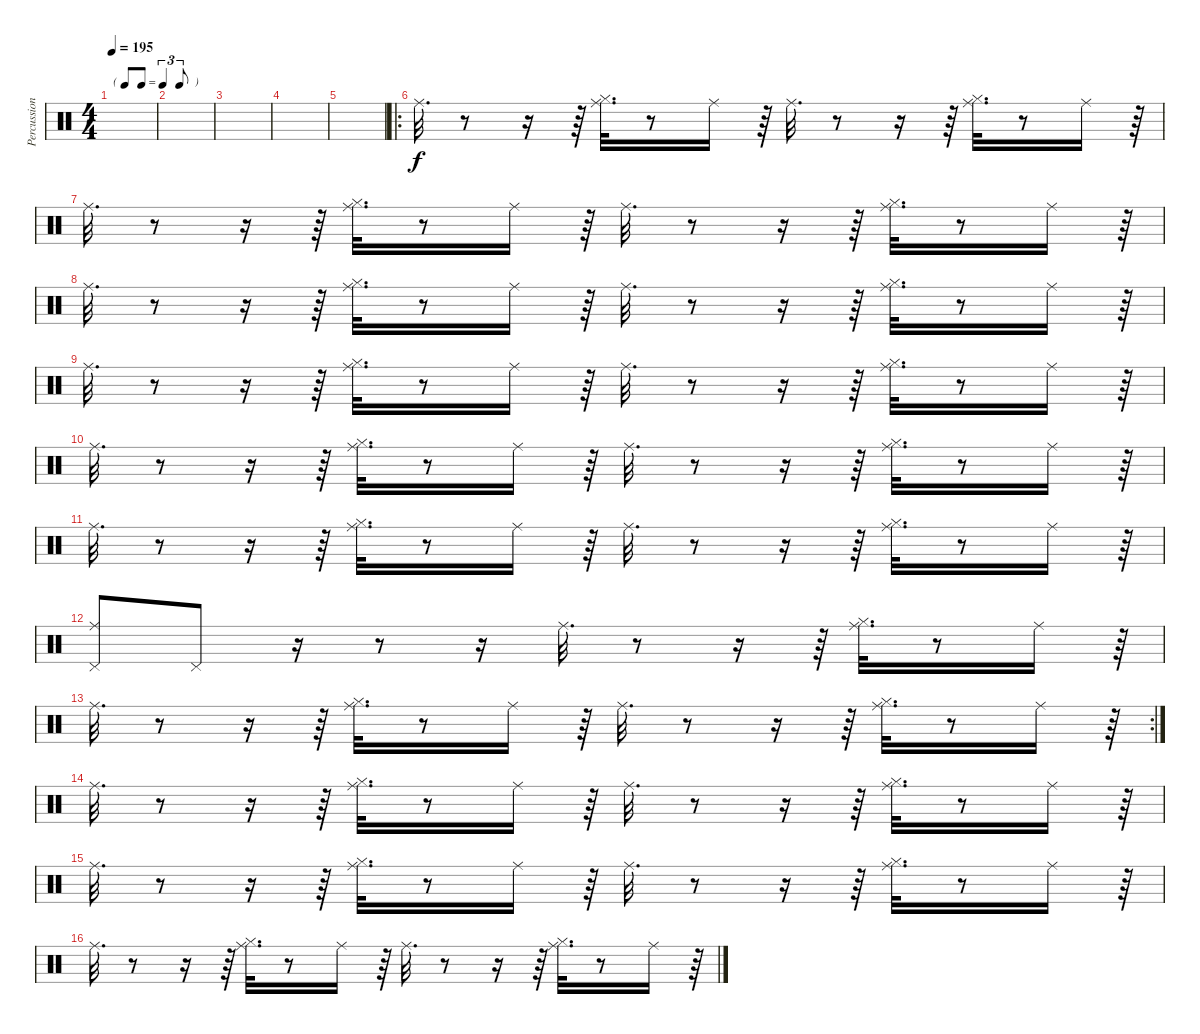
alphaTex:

\track ("Percussion" "Percussion") {instrument percussion}
\staff {score}
\articulation defaults
\ts (4 4)
\tf triplet8th
\tempo 195
\clef neutral
\ks c
|
|
|
|
|
\ro "Ride (middle)".32{d}
r.8 r.16 r.64 ("Hi-Hat (closed)" "Ride (middle)").32{d} r.8 "Ride (middle)".16 r.64 "Ride (middle)".32{d} r.8 r.16 r.64 ("Hi-Hat (closed)" "Ride (middle)").32{d} r.8 "Ride (middle)".16 r.64 |
"Ride (middle)".32{d} r.8 r.16 r.64 ("Hi-Hat (closed)" "Ride (middle)").32{d} r.8 "Ride (middle)".16 r.64 "Ride (middle)".32{d} r.8 r.16 r.64 ("Hi-Hat (closed)" "Ride (middle)").32{d} r.8 "Ride (middle)".16 r.64 |
"Ride (middle)".32{d} r.8 r.16 r.64 ("Hi-Hat (closed)" "Ride (middle)").32{d} r.8 "Ride (middle)".16 r.64 "Ride (middle)".32{d} r.8 r.16 r.64 ("Hi-Hat (closed)" "Ride (middle)").32{d} r.8 "Ride (middle)".16 r.64 |
"Ride (middle)".32{d} r.8 r.16 r.64 ("Hi-Hat (closed)" "Ride (middle)").32{d} r.8 "Ride (middle)".16 r.64 "Ride (middle)".32{d} r.8 r.16 r.64 ("Hi-Hat (closed)" "Ride (middle)").32{d} r.8 "Ride (middle)".16 r.64 |
"Ride (middle)".32{d} r.8 r.16 r.64 ("Hi-Hat (closed)" "Ride (middle)").32{d} r.8 "Ride (middle)".16 r.64 "Ride (middle)".32{d} r.8 r.16 r.64 ("Hi-Hat (closed)" "Ride (middle)").32{d} r.8 "Ride (middle)".16 r.64 |
"Ride (middle)".32{d} r.8 r.16 r.64 ("Hi-Hat (closed)" "Ride (middle)").32{d} r.8 "Ride (middle)".16 r.64 "Ride (middle)".32{d} r.8 r.16 r.64 ("Hi-Hat (closed)" "Ride (middle)").32{d} r.8 "Ride (middle)".16 r.64 |
("Ride (middle)" "Pedal Hi-Hat (hit)").8 "Pedal Hi-Hat (hit)".8 r.16 r.8 r.16 "Ride (middle)".32{d} r.8 r.16 r.64 ("Hi-Hat (closed)" "Ride (middle)").32{d} r.8 "Ride (middle)".16 r.64 |
\rc 2 "Ride (middle)".32{d}
r.8 r.16 r.64 ("Hi-Hat (closed)" "Ride (middle)").32{d} r.8 "Ride (middle)".16 r.64 "Ride (middle)".32{d} r.8 r.16 r.64 ("Hi-Hat (closed)" "Ride (middle)").32{d} r.8 "Ride (middle)".16 r.64 |
"Ride (middle)".32{d} r.8 r.16 r.64 ("Hi-Hat (closed)" "Ride (middle)").32{d} r.8 "Ride (middle)".16 r.64 "Ride (middle)".32{d} r.8 r.16 r.64 ("Hi-Hat (closed)" "Ride (middle)").32{d} r.8 "Ride (middle)".16 r.64 |
"Ride (middle)".32{d} r.8 r.16 r.64 ("Hi-Hat (closed)" "Ride (middle)").32{d} r.8 "Ride (middle)".16 r.64 "Ride (middle)".32{d} r.8 r.16 r.64 ("Hi-Hat (closed)" "Ride (middle)").32{d} r.8 "Ride (middle)".16 r.64 |
"Ride (middle)".32{d} r.8 r.16 r.64 ("Hi-Hat (closed)" "Ride (middle)").32{d} r.8 "Ride (middle)".16 r.64 "Ride (middle)".32{d} r.8 r.16 r.64 ("Hi-Hat (closed)" "Ride (middle)").32{d} r.8 "Ride (middle)".16 r.64
